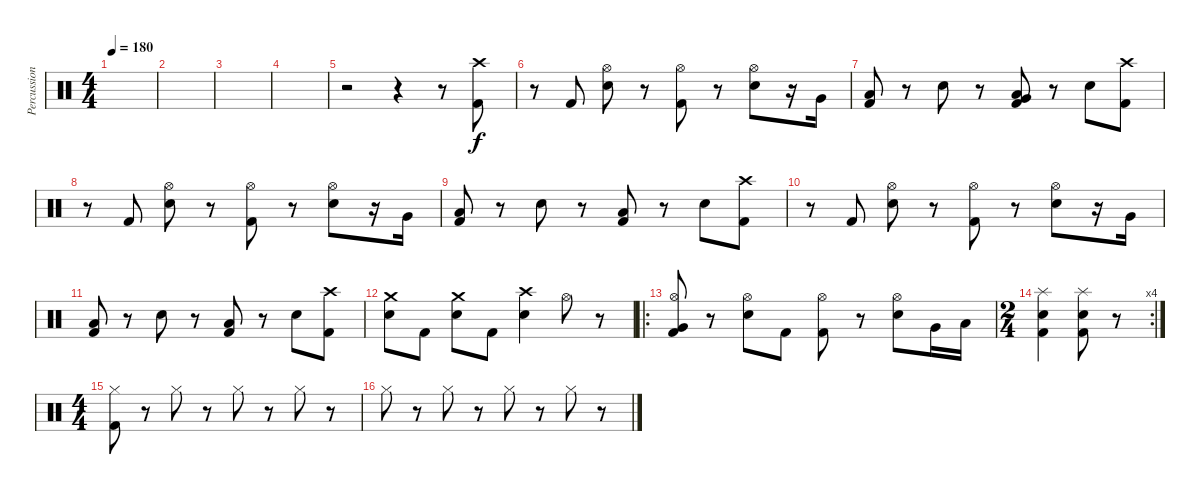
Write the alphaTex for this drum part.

\track ("Percussion" "Percussion") {instrument percussion}
\staff {score}
\articulation defaults
\ts (4 4)
\tempo 180
\clef neutral
\ks c
|
|
|
|
r.2 r.4 r.8 ("Crash high (hit)" "Kick (hit) 2").8 |
r.8 "Kick (hit) 2".8 ("Hi-Hat (open)" "Electric Snare (hit)").8 r.8 ("Hi-Hat (open)" "Kick (hit) 2").8 r.8 ("Hi-Hat (open)" "Electric Snare (hit)").8 r.16 "Very Low Tom (hit)".16 |
("Low Floor Tom (hit)" "Kick (hit) 2").8 r.8 "Electric Snare (hit)".8 r.8 ("Low Floor Tom (hit)" "Very Low Tom (hit)" "Kick (hit) 2").8 r.8 "Electric Snare (hit)".8 ("Crash high (hit)" "Kick (hit) 2").8 |
r.8 "Kick (hit) 2".8 ("Hi-Hat (open)" "Electric Snare (hit)").8 r.8 ("Hi-Hat (open)" "Kick (hit) 2").8 r.8 ("Hi-Hat (open)" "Electric Snare (hit)").8 r.16 "Very Low Tom (hit)".16 |
("Low Floor Tom (hit)" "Kick (hit) 2").8 r.8 "Electric Snare (hit)".8 r.8 ("Low Floor Tom (hit)" "Kick (hit) 2").8 r.8 "Electric Snare (hit)".8 ("Crash high (hit)" "Kick (hit) 2").8 |
r.8 "Kick (hit) 2".8 ("Hi-Hat (open)" "Electric Snare (hit)").8 r.8 ("Hi-Hat (open)" "Kick (hit) 2").8 r.8 ("Hi-Hat (open)" "Electric Snare (hit)").8 r.16 "Very Low Tom (hit)".16 |
("Low Floor Tom (hit)" "Kick (hit) 2").8 r.8 "Electric Snare (hit)".8 r.8 ("Low Floor Tom (hit)" "Kick (hit) 2").8 r.8 "Electric Snare (hit)".8 ("Crash high (hit)" "Kick (hit) 2").8 |
("Crash medium (hit)" "Electric Snare (hit)").8 "Kick (hit) 2".8 ("Crash medium (hit)" "Electric Snare (hit)").8 "Kick (hit) 2".8 ("Crash high (hit)" "Electric Snare (hit)").4 "Hi-Hat (open)".8 r.8 |
\ro
("Hi-Hat (open)" "Very Low Tom (hit)" "Kick (hit) 2").8 r.8 ("Hi-Hat (open)" "Electric Snare (hit)").8 "Kick (hit) 2".8 ("Hi-Hat (open)" "Kick (hit) 2").8 r.8 ("Hi-Hat (open)" "Electric Snare (hit)").8 "Very Low Tom (hit)".16 "Low Tom (hit)".16 |
\rc 4
\ts (2 4)
("Splash (hit)" "Electric Snare (hit)" "Kick (hit) 2").4 ("Splash (hit)" "Electric Snare (hit)" "Kick (hit) 2").8 r.8 |
\ts (4 4)
("Hi-Hat (closed)" "Kick (hit) 2").8 r.8 "Hi-Hat (closed)".8 r.8 "Hi-Hat (closed)".8 r.8 "Hi-Hat (closed)".8 r.8 |
"Hi-Hat (closed)".8 r.8 "Hi-Hat (closed)".8 r.8 "Hi-Hat (closed)".8 r.8 "Hi-Hat (closed)".8 r.8
